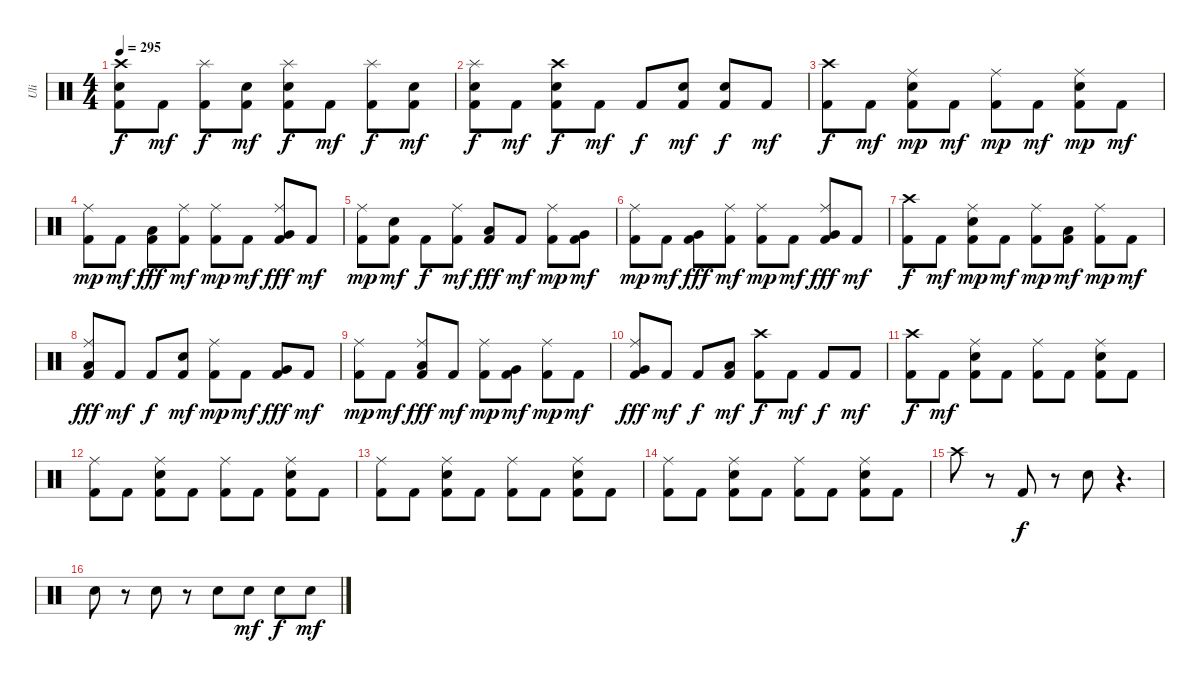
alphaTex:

\track ("Uli" "Uli") {instrument percussion}
\staff {score}
\articulation defaults
\ts (4 4)
\tempo 295
\clef neutral
\ks c
("Crash high (hit)" "Electric Snare (hit)" "Kick (hit) 2").8{dy f} "Kick (hit) 2".8{dy mf volume 16} ("Splash (hit)" "Kick (hit) 2").8{dy f} ("Electric Snare (hit)" "Kick (hit) 2").8{dy mf} ("Splash (hit)" "Electric Snare (hit)" "Kick (hit) 2").8{dy f} "Kick (hit) 2".8{dy mf} ("Splash (hit)" "Kick (hit) 2").8{dy f} ("Electric Snare (hit)" "Kick (hit) 2").8{dy mf} |
("Splash (hit)" "Electric Snare (hit)" "Kick (hit) 2").8{dy f} "Kick (hit) 2".8{dy mf volume 16} ("Crash high (hit)" "Electric Snare (hit)" "Kick (hit) 2").8{dy f} "Kick (hit) 2".8{dy mf} "Kick (hit) 2".8{dy f} ("Electric Snare (hit)" "Kick (hit) 2").8{dy mf} ("Electric Snare (hit)" "Kick (hit) 2").8{dy f} "Kick (hit) 2".8{dy mf} |
("Crash high (hit)" "Kick (hit) 2").8{dy f} "Kick (hit) 2".8{dy mf volume 16} ("Ride (middle)" "Electric Snare (hit)" "Kick (hit) 2").8{dy mp} "Kick (hit) 2".8{dy mf} ("Ride (middle)" "Kick (hit) 2").8{dy mp} "Kick (hit) 2".8{dy mf} ("Ride (middle)" "Electric Snare (hit)" "Kick (hit) 2").8{dy mp} "Kick (hit) 2".8{dy mf} |
("Ride (middle)" "Kick (hit) 2").8{dy mp} "Kick (hit) 2".8{dy mf volume 16} ("Low Tom (hit)" "Kick (hit) 2").8{dy fff} ("Ride (middle)" "Kick (hit) 2").8{dy mf} ("Ride (middle)" "Kick (hit) 2").8{dy mp} "Kick (hit) 2".8{dy mf} ("Ride (middle)" "Very Low Tom (hit)" "Kick (hit) 2").8{dy fff} "Kick (hit) 2".8{dy mf} |
("Ride (middle)" "Kick (hit) 2").8{dy mp} ("Electric Snare (hit)" "Kick (hit) 2").8{dy mf volume 16} "Kick (hit) 2".8{dy f} ("Ride (middle)" "Kick (hit) 2").8{dy mf} ("Low Tom (hit)" "Kick (hit) 2").8{dy fff} "Kick (hit) 2".8{dy mf} ("Ride (middle)" "Kick (hit) 2").8{dy mp} ("Very Low Tom (hit)" "Kick (hit) 2").8{dy mf} |
("Ride (middle)" "Kick (hit) 2").8{dy mp} "Kick (hit) 2".8{dy mf volume 16} ("Very Low Tom (hit)" "Kick (hit) 2").8{dy fff} ("Ride (middle)" "Kick (hit) 2").8{dy mf} ("Ride (middle)" "Kick (hit) 2").8{dy mp} "Kick (hit) 2".8{dy mf} ("Ride (middle)" "Very Low Tom (hit)" "Kick (hit) 2").8{dy fff} "Kick (hit) 2".8{dy mf} |
("Crash high (hit)" "Kick (hit) 2").8{dy f} "Kick (hit) 2".8{dy mf volume 16} ("Ride (middle)" "Electric Snare (hit)" "Kick (hit) 2").8{dy mp} "Kick (hit) 2".8{dy mf} ("Ride (middle)" "Kick (hit) 2").8{dy mp} ("Low Tom (hit)" "Kick (hit) 2").8{dy mf} ("Ride (middle)" "Kick (hit) 2").8{dy mp} "Kick (hit) 2".8{dy mf} |
("Ride (middle)" "Low Tom (hit)" "Kick (hit) 2").8{dy fff} "Kick (hit) 2".8{dy mf volume 16} "Kick (hit) 2".8{dy f} ("Electric Snare (hit)" "Kick (hit) 2").8{dy mf} ("Ride (middle)" "Kick (hit) 2").8{dy mp} "Kick (hit) 2".8{dy mf} ("Very Low Tom (hit)" "Kick (hit) 2").8{dy fff} "Kick (hit) 2".8{dy mf} |
("Ride (middle)" "Kick (hit) 2").8{dy mp} "Kick (hit) 2".8{dy mf volume 16} ("Ride (middle)" "Low Tom (hit)" "Kick (hit) 2").8{dy fff} "Kick (hit) 2".8{dy mf} ("Ride (middle)" "Kick (hit) 2").8{dy mp} ("Very Low Tom (hit)" "Kick (hit) 2").8{dy mf} ("Ride (middle)" "Kick (hit) 2").8{dy mp} "Kick (hit) 2".8{dy mf} |
("Ride (middle)" "Very Low Tom (hit)" "Kick (hit) 2").8{dy fff} "Kick (hit) 2".8{dy mf volume 16} "Kick (hit) 2".8{dy f} ("Low Floor Tom (hit)" "Kick (hit) 2").8{dy mf} ("Crash high (hit)" "Kick (hit) 2").8{dy f} "Kick (hit) 2".8{dy mf} "Kick (hit) 2".8{dy f} "Kick (hit) 2".8{dy mf} |
("Crash high (hit)" "Kick (hit) 2").8{dy f} "Kick (hit) 2".8{dy mf volume 16} ("Ride (middle)" "Electric Snare (hit)" "Kick (hit) 2").8 "Kick (hit) 2".8 ("Ride (middle)" "Kick (hit) 2").8 "Kick (hit) 2".8 ("Ride (middle)" "Electric Snare (hit)" "Kick (hit) 2").8 "Kick (hit) 2".8 |
("Ride (middle)" "Kick (hit) 2").8 "Kick (hit) 2".8{volume 16} ("Ride (middle)" "Electric Snare (hit)" "Kick (hit) 2").8 "Kick (hit) 2".8 ("Ride (middle)" "Kick (hit) 2").8 "Kick (hit) 2".8 ("Ride (middle)" "Electric Snare (hit)" "Kick (hit) 2").8 "Kick (hit) 2".8 |
("Ride (middle)" "Kick (hit) 2").8 "Kick (hit) 2".8{volume 16} ("Ride (middle)" "Electric Snare (hit)" "Kick (hit) 2").8 "Kick (hit) 2".8 ("Ride (middle)" "Kick (hit) 2").8 "Kick (hit) 2".8 ("Ride (middle)" "Electric Snare (hit)" "Kick (hit) 2").8 "Kick (hit) 2".8 |
("Ride (middle)" "Kick (hit) 2").8 "Kick (hit) 2".8{volume 16} ("Ride (middle)" "Electric Snare (hit)" "Kick (hit) 2").8 "Kick (hit) 2".8 ("Ride (middle)" "Kick (hit) 2").8 "Kick (hit) 2".8 ("Ride (middle)" "Electric Snare (hit)" "Kick (hit) 2").8 "Kick (hit) 2".8 |
"Crash high (hit)".8 r.8 "Kick (hit) 2".8{dy f} r.8 "Electric Snare (hit)".8 r.4{d} |
"Electric Snare (hit)".8 r.8 "Electric Snare (hit)".8 r.8 "Electric Snare (hit)".8 "Electric Snare (hit)".8{dy mf} "Electric Snare (hit)".8{dy f} "Electric Snare (hit)".8{dy mf}
